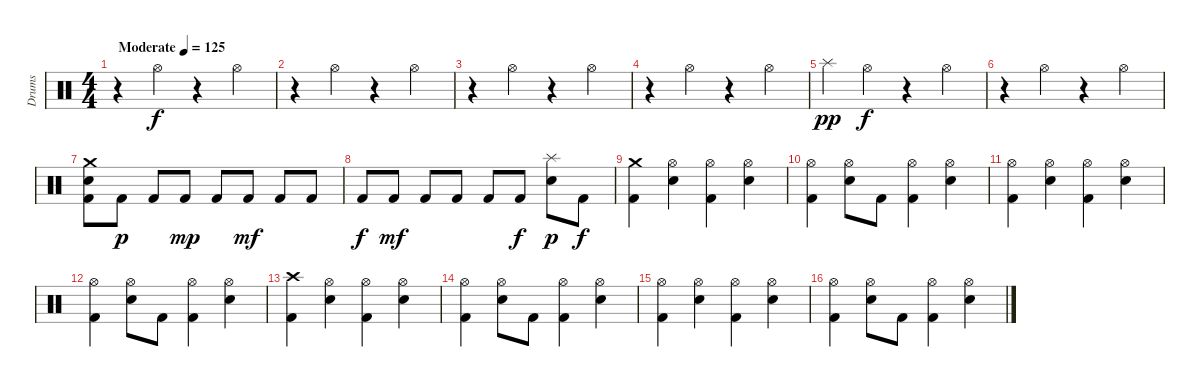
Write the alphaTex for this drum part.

\track ("Drums" "Drums") {instrument percussion}
\staff {score}
\articulation defaults
\ts (4 4)
\tempo (125 "Moderate")
\clef neutral
\ks c
r.4{dy f} "Hi-Hat (open)".4 r.4 "Hi-Hat (open)".4 |
r.4 "Hi-Hat (open)".4 r.4 "Hi-Hat (open)".4 |
r.4 "Hi-Hat (open)".4 r.4 "Hi-Hat (open)".4 |
r.4 "Hi-Hat (open)".4 r.4 "Hi-Hat (open)".4 |
"Splash (hit)".4{dy pp} "Hi-Hat (open)".4{dy f} r.4 "Hi-Hat (open)".4 |
r.4 "Hi-Hat (open)".4 r.4 "Hi-Hat (open)".4 |
("Crash medium (hit)" "Electric Snare (hit)" "Kick (hit) 2").8 "Kick (hit) 2".8{dy p} "Kick (hit) 2".8 "Kick (hit) 2".8{dy mp} "Kick (hit) 2".8 "Kick (hit) 2".8{dy mf} "Kick (hit) 2".8 "Kick (hit) 2".8 |
"Kick (hit) 2".8{dy f} "Kick (hit) 2".8{dy mf} "Kick (hit) 2".8 "Kick (hit) 2".8 "Kick (hit) 2".8 "Kick (hit) 2".8{dy f} ("Splash (hit)" "Electric Snare (hit)").8{dy p} "Kick (hit) 2".8{dy f} |
("Crash medium (hit)" "Kick (hit) 2").4 ("Hi-Hat (open)" "Electric Snare (hit)").4 ("Hi-Hat (open)" "Kick (hit) 2").4 ("Hi-Hat (open)" "Electric Snare (hit)").4 |
("Hi-Hat (open)" "Kick (hit) 2").4 ("Hi-Hat (open)" "Electric Snare (hit)").8 "Kick (hit) 2".8 ("Hi-Hat (open)" "Kick (hit) 2").4 ("Hi-Hat (open)" "Electric Snare (hit)").4 |
("Hi-Hat (open)" "Kick (hit) 2").4 ("Hi-Hat (open)" "Electric Snare (hit)").4 ("Hi-Hat (open)" "Kick (hit) 2").4 ("Hi-Hat (open)" "Electric Snare (hit)").4 |
("Hi-Hat (open)" "Kick (hit) 2").4 ("Hi-Hat (open)" "Electric Snare (hit)").8 "Kick (hit) 2".8 ("Hi-Hat (open)" "Kick (hit) 2").4 ("Hi-Hat (open)" "Electric Snare (hit)").4 |
("Crash high (hit)" "Kick (hit) 2").4 ("Hi-Hat (open)" "Electric Snare (hit)").4 ("Hi-Hat (open)" "Kick (hit) 2").4 ("Hi-Hat (open)" "Electric Snare (hit)").4 |
("Hi-Hat (open)" "Kick (hit) 2").4 ("Hi-Hat (open)" "Electric Snare (hit)").8 "Kick (hit) 2".8 ("Hi-Hat (open)" "Kick (hit) 2").4 ("Hi-Hat (open)" "Electric Snare (hit)").4 |
("Hi-Hat (open)" "Kick (hit) 2").4 ("Hi-Hat (open)" "Electric Snare (hit)").4 ("Hi-Hat (open)" "Kick (hit) 2").4 ("Hi-Hat (open)" "Electric Snare (hit)").4 |
("Hi-Hat (open)" "Kick (hit) 2").4 ("Hi-Hat (open)" "Electric Snare (hit)").8 "Kick (hit) 2".8 ("Hi-Hat (open)" "Kick (hit) 2").4 ("Hi-Hat (open)" "Electric Snare (hit)").4
